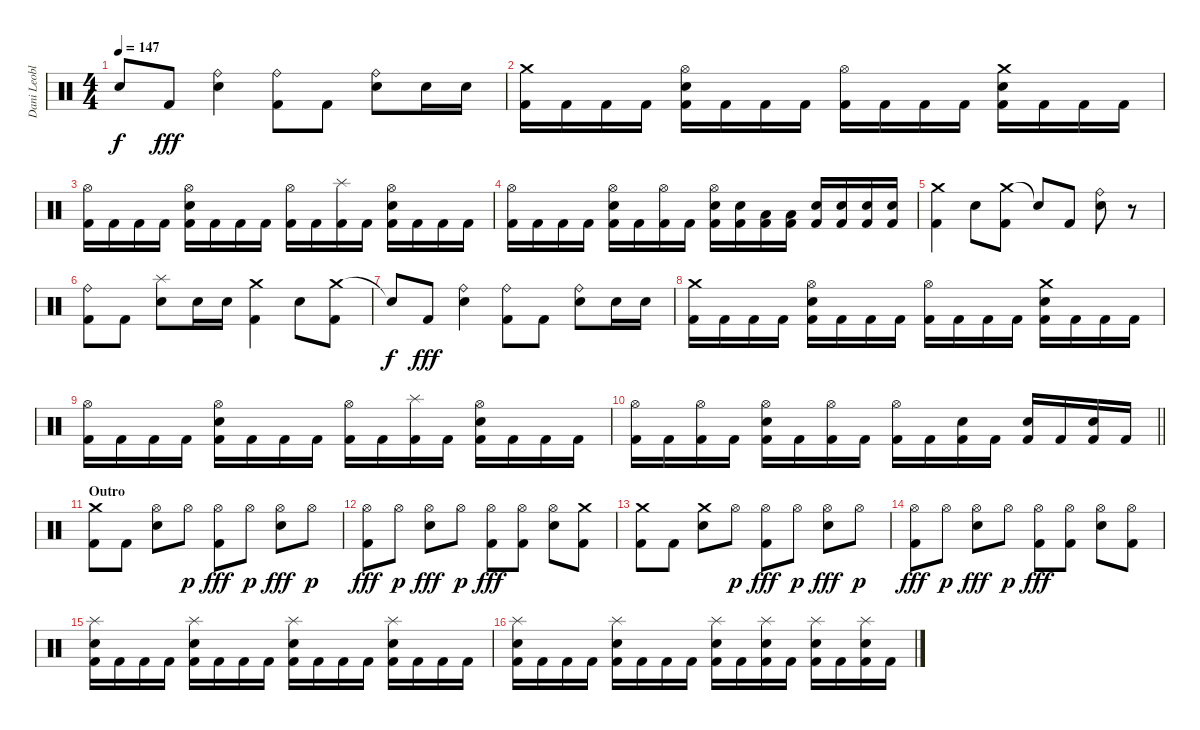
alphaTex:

\track ("Dani Leoble" "Dani Leobl") {instrument percussion}
\staff {score}
\articulation defaults
\ts (4 4)
\tempo 147
\clef neutral
\ks c "Snare (hit)"{t}.8{dy f} "Kick (hit) 2".8{dy fff}
("Ride (bell)" "Electric Snare (hit)").4 ("Ride (bell)" "Kick (hit) 2").8 "Kick (hit) 2".8 ("Ride (bell)" "Electric Snare (hit)").8 "Electric Snare (hit)".16 "Electric Snare (hit)".16 |
("Crash medium (hit)" "Kick (hit) 2").16 "Kick (hit) 2".16 "Kick (hit) 2".16 "Kick (hit) 2".16 ("Hi-Hat (open)" "Electric Snare (hit)" "Kick (hit) 2").16 "Kick (hit) 2".16 "Kick (hit) 2".16 "Kick (hit) 2".16 ("Hi-Hat (open)" "Kick (hit) 2").16 "Kick (hit) 2".16 "Kick (hit) 2".16 "Kick (hit) 2".16 ("Crash medium (hit)" "Electric Snare (hit)" "Kick (hit) 2").16 "Kick (hit) 2".16 "Kick (hit) 2".16 "Kick (hit) 2".16 |
("Hi-Hat (open)" "Kick (hit) 2").16 "Kick (hit) 2".16 "Kick (hit) 2".16 "Kick (hit) 2".16 ("Hi-Hat (open)" "Electric Snare (hit)" "Kick (hit) 2").16 "Kick (hit) 2".16 "Kick (hit) 2".16 "Kick (hit) 2".16 ("Hi-Hat (open)" "Kick (hit) 2").16 "Kick (hit) 2".16 ("Splash (hit)" "Kick (hit) 2").16 "Kick (hit) 2".16 ("Hi-Hat (open)" "Electric Snare (hit)" "Kick (hit) 2").16 "Kick (hit) 2".16 "Kick (hit) 2".16 "Kick (hit) 2".16 |
("Hi-Hat (open)" "Kick (hit) 2").16 "Kick (hit) 2".16 "Kick (hit) 2".16 "Kick (hit) 2".16 ("Hi-Hat (open)" "Electric Snare (hit)" "Kick (hit) 2").16 "Kick (hit) 2".16 ("Hi-Hat (open)" "Kick (hit) 2").16 "Kick (hit) 2".16 ("Hi-Hat (open)" "Electric Snare (hit)" "Kick (hit) 2").16 ("Electric Snare (hit)" "Kick (hit) 2").16 ("Low Tom (hit)" "Kick (hit) 2").16 ("Low Tom (hit)" "Kick (hit) 2").16 ("Electric Snare (hit)" "Kick (hit) 2").16 ("Electric Snare (hit)" "Kick (hit) 2").16 ("Electric Snare (hit)" "Kick (hit) 2").16 ("Electric Snare (hit)" "Kick (hit) 2").16 |
("Crash medium (hit)" "Kick (hit) 2").4 "Electric Snare (hit)".8 ("Crash medium (hit)" "Kick (hit) 2").8 "Snare (hit)"{t}.8 "Kick (hit) 2".8 ("Ride (bell)" "Electric Snare (hit)").8 r.8 |
("Ride (bell)" "Kick (hit) 2").8 "Kick (hit) 2".8 ("Splash (hit)" "Electric Snare (hit)").8 "Electric Snare (hit)".16 "Electric Snare (hit)".16 ("Crash medium (hit)" "Kick (hit) 2").4 "Electric Snare (hit)".8 ("Crash medium (hit)" "Kick (hit) 2").8 |
"Snare (hit)"{t}.8{dy f} "Kick (hit) 2".8{dy fff} ("Ride (bell)" "Electric Snare (hit)").4 ("Ride (bell)" "Kick (hit) 2").8 "Kick (hit) 2".8 ("Ride (bell)" "Electric Snare (hit)").8 "Electric Snare (hit)".16 "Electric Snare (hit)".16 |
("Crash medium (hit)" "Kick (hit) 2").16 "Kick (hit) 2".16 "Kick (hit) 2".16 "Kick (hit) 2".16 ("Hi-Hat (open)" "Electric Snare (hit)" "Kick (hit) 2").16 "Kick (hit) 2".16 "Kick (hit) 2".16 "Kick (hit) 2".16 ("Hi-Hat (open)" "Kick (hit) 2").16 "Kick (hit) 2".16 "Kick (hit) 2".16 "Kick (hit) 2".16 ("Crash medium (hit)" "Electric Snare (hit)" "Kick (hit) 2").16 "Kick (hit) 2".16 "Kick (hit) 2".16 "Kick (hit) 2".16 |
("Hi-Hat (open)" "Kick (hit) 2").16 "Kick (hit) 2".16 "Kick (hit) 2".16 "Kick (hit) 2".16 ("Hi-Hat (open)" "Electric Snare (hit)" "Kick (hit) 2").16 "Kick (hit) 2".16 "Kick (hit) 2".16 "Kick (hit) 2".16 ("Hi-Hat (open)" "Kick (hit) 2").16 "Kick (hit) 2".16 ("Splash (hit)" "Kick (hit) 2").16 "Kick (hit) 2".16 ("Hi-Hat (open)" "Electric Snare (hit)" "Kick (hit) 2").16 "Kick (hit) 2".16 "Kick (hit) 2".16 "Kick (hit) 2".16 |
\barLineRight lightlight
("Hi-Hat (open)" "Kick (hit) 2").16 "Kick (hit) 2".16 ("Hi-Hat (open)" "Kick (hit) 2").16 "Kick (hit) 2".16 ("Hi-Hat (open)" "Electric Snare (hit)" "Kick (hit) 2").16 "Kick (hit) 2".16 ("Hi-Hat (open)" "Kick (hit) 2").16 "Kick (hit) 2".16 ("Hi-Hat (open)" "Kick (hit) 2").16 "Kick (hit) 2".16 ("Electric Snare (hit)" "Kick (hit) 2").16 "Kick (hit) 2".16 ("Electric Snare (hit)" "Kick (hit) 2").16 "Kick (hit) 2".16 ("Electric Snare (hit)" "Kick (hit) 2").16 "Kick (hit) 2".16 |
\section ("" "Outro")
("Crash medium (hit)" "Kick (hit) 2").8 "Kick (hit) 2".8 ("Hi-Hat (open)" "Electric Snare (hit)").8 "Hi-Hat (open)".8{dy p} ("Hi-Hat (open)" "Kick (hit) 2").8{dy fff} "Hi-Hat (open)".8{dy p} ("Hi-Hat (open)" "Electric Snare (hit)").8{dy fff} "Hi-Hat (open)".8{dy p} |
("Hi-Hat (open)" "Kick (hit) 2").8{dy fff} "Hi-Hat (open)".8{dy p} ("Hi-Hat (open)" "Electric Snare (hit)").8{dy fff} "Hi-Hat (open)".8{dy p} ("Hi-Hat (open)" "Kick (hit) 2").8{dy fff} ("Hi-Hat (open)" "Kick (hit) 2").8 ("Hi-Hat (open)" "Electric Snare (hit)").8 ("Crash medium (hit)" "Kick (hit) 2").8 |
("Crash medium (hit)" "Kick (hit) 2").8 "Kick (hit) 2".8 ("Crash medium (hit)" "Electric Snare (hit)").8 "Hi-Hat (open)".8{dy p} ("Hi-Hat (open)" "Kick (hit) 2").8{dy fff} "Hi-Hat (open)".8{dy p} ("Hi-Hat (open)" "Electric Snare (hit)").8{dy fff} "Hi-Hat (open)".8{dy p} |
("Hi-Hat (open)" "Kick (hit) 2").8{dy fff} "Hi-Hat (open)".8{dy p} ("Hi-Hat (open)" "Electric Snare (hit)").8{dy fff} "Hi-Hat (open)".8{dy p} ("Hi-Hat (open)" "Kick (hit) 2").8{dy fff} ("Hi-Hat (open)" "Kick (hit) 2").8 ("Hi-Hat (open)" "Electric Snare (hit)").8 ("Hi-Hat (open)" "Kick (hit) 2").8 |
("Splash (hit)" "Electric Snare (hit)" "Kick (hit) 2").16 "Kick (hit) 2".16 "Kick (hit) 2".16 "Kick (hit) 2".16 ("Splash (hit)" "Electric Snare (hit)" "Kick (hit) 2").16 "Kick (hit) 2".16 "Kick (hit) 2".16 "Kick (hit) 2".16 ("Splash (hit)" "Electric Snare (hit)" "Kick (hit) 2").16 "Kick (hit) 2".16 "Kick (hit) 2".16 "Kick (hit) 2".16 ("Splash (hit)" "Electric Snare (hit)" "Kick (hit) 2").16 "Kick (hit) 2".16 "Kick (hit) 2".16 "Kick (hit) 2".16 |
("Splash (hit)" "Electric Snare (hit)" "Kick (hit) 2").16 "Kick (hit) 2".16 "Kick (hit) 2".16 "Kick (hit) 2".16 ("Splash (hit)" "Electric Snare (hit)" "Kick (hit) 2").16 "Kick (hit) 2".16 "Kick (hit) 2".16 "Kick (hit) 2".16 ("Splash (hit)" "Electric Snare (hit)" "Kick (hit) 2").16 "Kick (hit) 2".16 ("Splash (hit)" "Electric Snare (hit)" "Kick (hit) 2").16 "Kick (hit) 2".16 ("Splash (hit)" "Electric Snare (hit)" "Kick (hit) 2").16 "Kick (hit) 2".16 ("Splash (hit)" "Electric Snare (hit)" "Kick (hit) 2").16 "Kick (hit) 2".16
